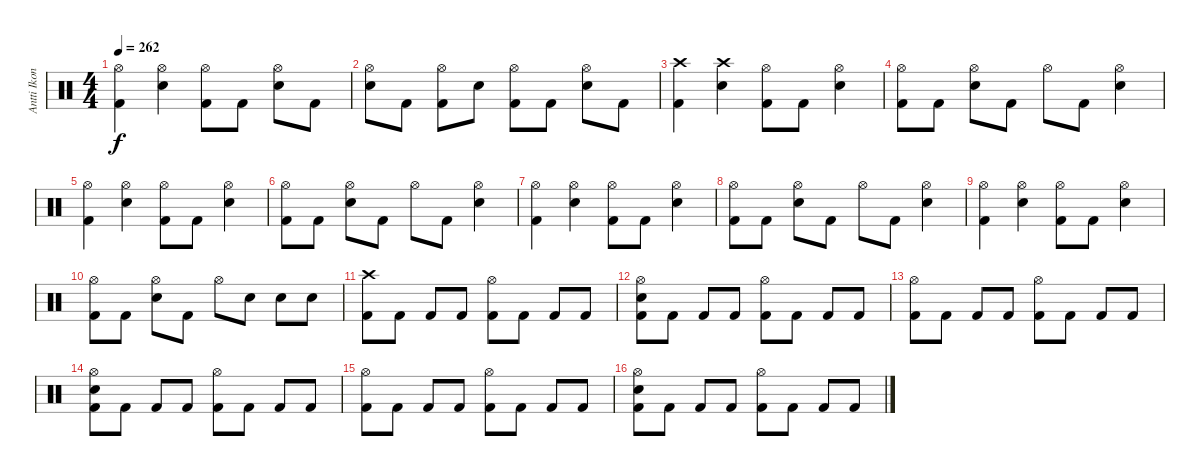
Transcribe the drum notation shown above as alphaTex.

\track ("Antti Ikonen" "Antti Ikon") {instrument percussion}
\staff {score}
\articulation defaults
\ts (4 4)
\tempo 262
\clef neutral
\ks c
("Hi-Hat (open)" "Kick (hit) 2").4{dy f} ("Hi-Hat (open)" "Electric Snare (hit)").4 ("Hi-Hat (open)" "Kick (hit) 2").8 "Kick (hit) 2".8 ("Hi-Hat (open)" "Electric Snare (hit)").8 "Kick (hit) 2".8 |
("Hi-Hat (open)" "Electric Snare (hit)").8 "Kick (hit) 2".8 ("Hi-Hat (open)" "Kick (hit) 2").8 "Electric Snare (hit)".8 ("Hi-Hat (open)" "Kick (hit) 2").8 "Kick (hit) 2".8 ("Hi-Hat (open)" "Electric Snare (hit)").8 "Kick (hit) 2".8 |
("Crash high (hit)" "Kick (hit) 2").4 ("Crash high (hit)" "Electric Snare (hit)").4 ("Hi-Hat (open)" "Kick (hit) 2").8 "Kick (hit) 2".8 ("Hi-Hat (open)" "Electric Snare (hit)").4 |
("Hi-Hat (open)" "Kick (hit) 2").8 "Kick (hit) 2".8 ("Hi-Hat (open)" "Electric Snare (hit)").8 "Kick (hit) 2".8 "Hi-Hat (open)".8 "Kick (hit) 2".8 ("Hi-Hat (open)" "Electric Snare (hit)").4 |
("Hi-Hat (open)" "Kick (hit) 2").4 ("Hi-Hat (open)" "Electric Snare (hit)").4 ("Hi-Hat (open)" "Kick (hit) 2").8 "Kick (hit) 2".8 ("Hi-Hat (open)" "Electric Snare (hit)").4 |
("Hi-Hat (open)" "Kick (hit) 2").8 "Kick (hit) 2".8 ("Hi-Hat (open)" "Electric Snare (hit)").8 "Kick (hit) 2".8 "Hi-Hat (open)".8 "Kick (hit) 2".8 ("Hi-Hat (open)" "Electric Snare (hit)").4 |
("Hi-Hat (open)" "Kick (hit) 2").4 ("Hi-Hat (open)" "Electric Snare (hit)").4 ("Hi-Hat (open)" "Kick (hit) 2").8 "Kick (hit) 2".8 ("Hi-Hat (open)" "Electric Snare (hit)").4 |
("Hi-Hat (open)" "Kick (hit) 2").8 "Kick (hit) 2".8 ("Hi-Hat (open)" "Electric Snare (hit)").8 "Kick (hit) 2".8 "Hi-Hat (open)".8 "Kick (hit) 2".8 ("Hi-Hat (open)" "Electric Snare (hit)").4 |
("Hi-Hat (open)" "Kick (hit) 2").4 ("Hi-Hat (open)" "Electric Snare (hit)").4 ("Hi-Hat (open)" "Kick (hit) 2").8 "Kick (hit) 2".8 ("Hi-Hat (open)" "Electric Snare (hit)").4 |
("Hi-Hat (open)" "Kick (hit) 2").8 "Kick (hit) 2".8 ("Hi-Hat (open)" "Electric Snare (hit)").8 "Kick (hit) 2".8 "Hi-Hat (open)".8 "Electric Snare (hit)".8 "Electric Snare (hit)".8 "Electric Snare (hit)".8 |
("Crash high (hit)" "Kick (hit) 2").8 "Kick (hit) 2".8 "Kick (hit) 2".8 "Kick (hit) 2".8 ("Hi-Hat (open)" "Kick (hit) 2").8 "Kick (hit) 2".8 "Kick (hit) 2".8 "Kick (hit) 2".8 |
("Hi-Hat (open)" "Electric Snare (hit)" "Kick (hit) 2").8 "Kick (hit) 2".8 "Kick (hit) 2".8 "Kick (hit) 2".8 ("Hi-Hat (open)" "Kick (hit) 2").8 "Kick (hit) 2".8 "Kick (hit) 2".8 "Kick (hit) 2".8 |
("Hi-Hat (open)" "Kick (hit) 2").8 "Kick (hit) 2".8 "Kick (hit) 2".8 "Kick (hit) 2".8 ("Hi-Hat (open)" "Kick (hit) 2").8 "Kick (hit) 2".8 "Kick (hit) 2".8 "Kick (hit) 2".8 |
("Hi-Hat (open)" "Electric Snare (hit)" "Kick (hit) 2").8 "Kick (hit) 2".8 "Kick (hit) 2".8 "Kick (hit) 2".8 ("Hi-Hat (open)" "Kick (hit) 2").8 "Kick (hit) 2".8 "Kick (hit) 2".8 "Kick (hit) 2".8 |
("Hi-Hat (open)" "Kick (hit) 2").8 "Kick (hit) 2".8 "Kick (hit) 2".8 "Kick (hit) 2".8 ("Hi-Hat (open)" "Kick (hit) 2").8 "Kick (hit) 2".8 "Kick (hit) 2".8 "Kick (hit) 2".8 |
("Hi-Hat (open)" "Electric Snare (hit)" "Kick (hit) 2").8 "Kick (hit) 2".8 "Kick (hit) 2".8 "Kick (hit) 2".8 ("Hi-Hat (open)" "Kick (hit) 2").8 "Kick (hit) 2".8 "Kick (hit) 2".8 "Kick (hit) 2".8
